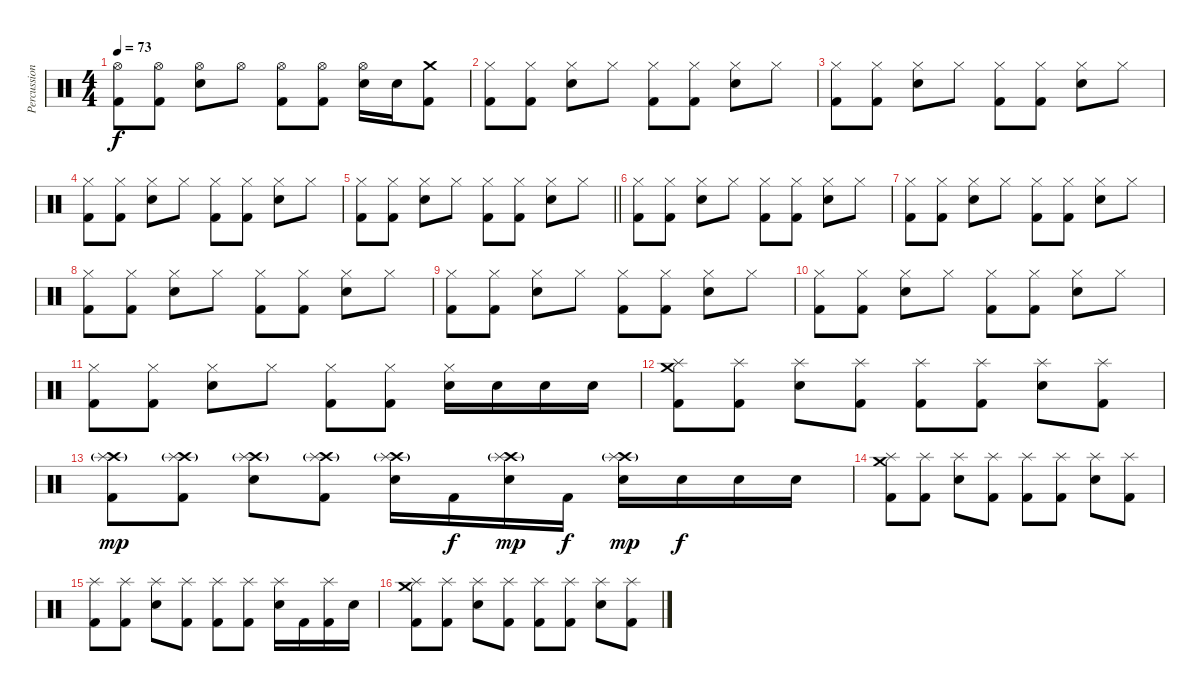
\track ("Percussions" "Percussion") {instrument percussion}
\staff {score}
\articulation defaults
\ts (4 4)
\tempo 73
\clef neutral
\ks c
("Hi-Hat (open)" "Kick (hit) 2").8{dy f} ("Hi-Hat (open)" "Kick (hit) 2").8 ("Hi-Hat (open)" "Snare (hit) 2").8 "Hi-Hat (open)".8 ("Hi-Hat (open)" "Kick (hit) 2").8 ("Hi-Hat (open)" "Kick (hit) 2").8 ("Hi-Hat (open)" "Electric Snare (hit)").16 "Electric Snare (hit)".16 ("Crash medium (hit)" "Kick (hit) 2").8 |
("Hi-Hat (closed)" "Kick (hit) 2").8 ("Hi-Hat (closed)" "Kick (hit) 2").8 ("Hi-Hat (closed)" "Snare (hit) 2").8 "Hi-Hat (closed)".8 ("Hi-Hat (closed)" "Kick (hit) 2").8 ("Hi-Hat (closed)" "Kick (hit) 2").8 ("Hi-Hat (closed)" "Snare (hit) 2").8 "Hi-Hat (closed)".8 |
("Hi-Hat (closed)" "Kick (hit) 2").8 ("Hi-Hat (closed)" "Kick (hit) 2").8 ("Hi-Hat (closed)" "Snare (hit) 2").8 "Hi-Hat (closed)".8 ("Hi-Hat (closed)" "Kick (hit) 2").8 ("Hi-Hat (closed)" "Kick (hit) 2").8 ("Hi-Hat (closed)" "Snare (hit) 2").8 "Hi-Hat (closed)".8 |
("Hi-Hat (closed)" "Kick (hit) 2").8 ("Hi-Hat (closed)" "Kick (hit) 2").8 ("Hi-Hat (closed)" "Snare (hit) 2").8 "Hi-Hat (closed)".8 ("Hi-Hat (closed)" "Kick (hit) 2").8 ("Hi-Hat (closed)" "Kick (hit) 2").8 ("Hi-Hat (closed)" "Snare (hit) 2").8 "Hi-Hat (closed)".8 |
\barLineRight lightlight
("Hi-Hat (closed)" "Kick (hit) 2").8 ("Hi-Hat (closed)" "Kick (hit) 2").8 ("Hi-Hat (closed)" "Snare (hit) 2").8 "Hi-Hat (closed)".8 ("Hi-Hat (closed)" "Kick (hit) 2").8 ("Hi-Hat (closed)" "Kick (hit) 2").8 ("Hi-Hat (closed)" "Snare (hit) 2").8 "Hi-Hat (closed)".8 |
("Hi-Hat (closed)" "Kick (hit) 2").8 ("Hi-Hat (closed)" "Kick (hit) 2").8 ("Hi-Hat (closed)" "Snare (hit) 2").8 "Hi-Hat (closed)".8 ("Hi-Hat (closed)" "Kick (hit) 2").8 ("Hi-Hat (closed)" "Kick (hit) 2").8 ("Hi-Hat (closed)" "Snare (hit) 2").8 "Hi-Hat (closed)".8 |
("Hi-Hat (closed)" "Kick (hit) 2").8 ("Hi-Hat (closed)" "Kick (hit) 2").8 ("Hi-Hat (closed)" "Snare (hit) 2").8 "Hi-Hat (closed)".8 ("Hi-Hat (closed)" "Kick (hit) 2").8 ("Hi-Hat (closed)" "Kick (hit) 2").8 ("Hi-Hat (closed)" "Snare (hit) 2").8 "Hi-Hat (closed)".8 |
("Hi-Hat (closed)" "Kick (hit) 2").8 ("Hi-Hat (closed)" "Kick (hit) 2").8 ("Hi-Hat (closed)" "Snare (hit) 2").8 "Hi-Hat (closed)".8 ("Hi-Hat (closed)" "Kick (hit) 2").8 ("Hi-Hat (closed)" "Kick (hit) 2").8 ("Hi-Hat (closed)" "Snare (hit) 2").8 "Hi-Hat (closed)".8 |
("Hi-Hat (closed)" "Kick (hit) 2").8 ("Hi-Hat (closed)" "Kick (hit) 2").8 ("Hi-Hat (closed)" "Snare (hit) 2").8 "Hi-Hat (closed)".8 ("Hi-Hat (closed)" "Kick (hit) 2").8 ("Hi-Hat (closed)" "Kick (hit) 2").8 ("Hi-Hat (closed)" "Electric Snare (hit)").8 "Hi-Hat (closed)".8 |
("Hi-Hat (closed)" "Kick (hit) 2").8 ("Hi-Hat (closed)" "Kick (hit) 2").8 ("Hi-Hat (closed)" "Electric Snare (hit)").8 "Hi-Hat (closed)".8 ("Hi-Hat (closed)" "Kick (hit) 2").8 ("Hi-Hat (closed)" "Kick (hit) 2").8 ("Hi-Hat (closed)" "Electric Snare (hit)").8 "Hi-Hat (closed)".8 |
("Hi-Hat (closed)" "Kick (hit) 2").8 ("Hi-Hat (closed)" "Kick (hit) 2").8 ("Hi-Hat (closed)" "Electric Snare (hit)").8 "Hi-Hat (closed)".8 ("Hi-Hat (closed)" "Kick (hit) 2").8 ("Hi-Hat (closed)" "Kick (hit) 2").8 ("Hi-Hat (closed)" "Electric Snare (hit)").16 "Electric Snare (hit)".16 "Electric Snare (hit)".16 "Electric Snare (hit)".16 |
("Crash medium (hit)" "Splash (hit)" "Kick (hit) 2").8 ("Splash (hit)" "Kick (hit) 2").8 ("Splash (hit)" "Snare (hit) 2").8 ("Splash (hit)" "Kick (hit) 2").8 ("Splash (hit)" "Kick (hit) 2").8 ("Splash (hit)" "Kick (hit) 2").8 ("Splash (hit)" "Snare (hit) 2").8 ("Splash (hit)" "Kick (hit) 2").8 |
("Crash high (hit)"{g} "Splash (hit)" "Kick (hit) 2").8{dy mp} ("Crash high (hit)"{g} "Splash (hit)" "Kick (hit) 2").8 ("Crash high (hit)"{g} "Splash (hit)" "Electric Snare (hit)").8 ("Crash high (hit)"{g} "Splash (hit)" "Kick (hit) 2").8 ("Crash high (hit)"{g} "Splash (hit)" "Electric Snare (hit)").16 "Kick (hit) 2".16{dy f} ("Crash high (hit)"{g} "Splash (hit)" "Electric Snare (hit)").16{dy mp} "Kick (hit) 2".16{dy f} ("Crash high (hit)"{g} "Splash (hit)" "Electric Snare (hit)").16{dy mp} "Electric Snare (hit)".16{dy f} "Electric Snare (hit)".16 "Electric Snare (hit)".16 |
("Crash medium (hit)" "Splash (hit)" "Kick (hit) 2").8 ("Splash (hit)" "Kick (hit) 2").8 ("Splash (hit)" "Snare (hit) 2").8 ("Splash (hit)" "Kick (hit) 2").8 ("Splash (hit)" "Kick (hit) 2").8 ("Splash (hit)" "Kick (hit) 2").8 ("Splash (hit)" "Snare (hit) 2").8 ("Splash (hit)" "Kick (hit) 2").8 |
("Splash (hit)" "Kick (hit) 2").8 ("Splash (hit)" "Kick (hit) 2").8 ("Splash (hit)" "Snare (hit) 2").8 ("Splash (hit)" "Kick (hit) 2").8 ("Splash (hit)" "Kick (hit) 2").8 ("Splash (hit)" "Kick (hit) 2").8 ("Splash (hit)" "Snare (hit) 2").16 "Kick (hit) 2".16 ("Splash (hit)" "Kick (hit) 2").16 "Electric Snare (hit)".16 |
("Crash medium (hit)" "Splash (hit)" "Kick (hit) 2").8 ("Splash (hit)" "Kick (hit) 2").8 ("Splash (hit)" "Snare (hit) 2").8 ("Splash (hit)" "Kick (hit) 2").8 ("Splash (hit)" "Kick (hit) 2").8 ("Splash (hit)" "Kick (hit) 2").8 ("Splash (hit)" "Snare (hit) 2").8 ("Splash (hit)" "Kick (hit) 2").8
